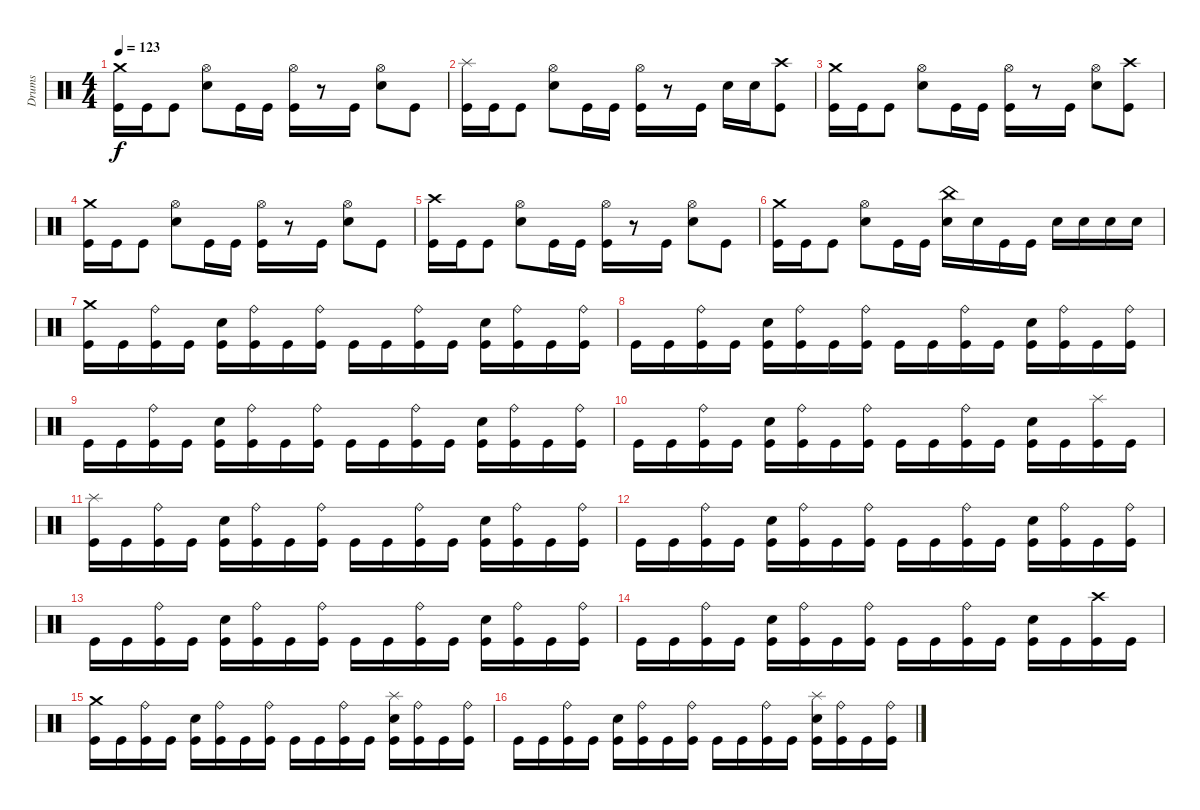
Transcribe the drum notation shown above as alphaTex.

\track ("Drums" "Drums") {instrument percussion}
\staff {score}
\articulation defaults
\ts (4 4)
\tempo 123
\clef neutral
\ks c
("Crash medium (hit)" "Kick (hit)").16{dy f} "Kick (hit)".16 "Kick (hit)".8 ("Hi-Hat (open)" "Electric Snare (hit)").8 "Kick (hit)".16 "Kick (hit)".16 ("Hi-Hat (open)" "Kick (hit)").16 r.8 "Kick (hit)".16 ("Hi-Hat (open)" "Electric Snare (hit)").8 "Kick (hit)".8 |
("Splash (hit)" "Kick (hit)").16 "Kick (hit)".16 "Kick (hit)".8 ("Hi-Hat (open)" "Electric Snare (hit)").8 "Kick (hit)".16 "Kick (hit)".16 ("Hi-Hat (open)" "Kick (hit)").16 r.8 "Kick (hit)".16 "Electric Snare (hit)".16 "Electric Snare (hit)".16 ("Crash high (hit)" "Kick (hit)").8 |
("Crash medium (hit)" "Kick (hit)").16 "Kick (hit)".16 "Kick (hit)".8 ("Hi-Hat (open)" "Electric Snare (hit)").8 "Kick (hit)".16 "Kick (hit)".16 ("Hi-Hat (open)" "Kick (hit)").16 r.8 "Kick (hit)".16 ("Hi-Hat (open)" "Electric Snare (hit)").8 ("Crash high (hit)" "Kick (hit)").8 |
("Crash medium (hit)" "Kick (hit)").16 "Kick (hit)".16 "Kick (hit)".8 ("Hi-Hat (open)" "Electric Snare (hit)").8 "Kick (hit)".16 "Kick (hit)".16 ("Hi-Hat (open)" "Kick (hit)").16 r.8 "Kick (hit)".16 ("Hi-Hat (open)" "Electric Snare (hit)").8 "Kick (hit)".8 |
("Crash high (hit)" "Kick (hit)").16 "Kick (hit)".16 "Kick (hit)".8 ("Hi-Hat (open)" "Electric Snare (hit)").8 "Kick (hit)".16 "Kick (hit)".16 ("Hi-Hat (open)" "Kick (hit)").16 r.8 "Kick (hit)".16 ("Hi-Hat (open)" "Electric Snare (hit)").8 "Kick (hit)".8 |
("Crash medium (hit)" "Kick (hit)").16 "Kick (hit)".16 "Kick (hit)".8 ("Hi-Hat (open)" "Electric Snare (hit)").8 "Kick (hit)".16 "Kick (hit)".16 ("China (hit)" "Electric Snare (hit)").16 "Electric Snare (hit)".16 "Kick (hit)".16 "Kick (hit)".16 "Electric Snare (hit)".16 "Electric Snare (hit)".16 "Electric Snare (hit)".16 "Electric Snare (hit)".16 |
("Crash medium (hit)" "Kick (hit)").16 "Kick (hit)".16 ("Ride (bell)" "Kick (hit)").16 "Kick (hit)".16 ("Electric Snare (hit)" "Kick (hit)").16 ("Ride (bell)" "Kick (hit)").16 "Kick (hit)".16 ("Ride (bell)" "Kick (hit)").16 "Kick (hit)".16 "Kick (hit)".16 ("Ride (bell)" "Kick (hit)").16 "Kick (hit)".16 ("Electric Snare (hit)" "Kick (hit)").16 ("Ride (bell)" "Kick (hit)").16 "Kick (hit)".16 ("Ride (bell)" "Kick (hit)").16 |
"Kick (hit)".16 "Kick (hit)".16 ("Ride (bell)" "Kick (hit)").16 "Kick (hit)".16 ("Electric Snare (hit)" "Kick (hit)").16 ("Ride (bell)" "Kick (hit)").16 "Kick (hit)".16 ("Ride (bell)" "Kick (hit)").16 "Kick (hit)".16 "Kick (hit)".16 ("Ride (bell)" "Kick (hit)").16 "Kick (hit)".16 ("Electric Snare (hit)" "Kick (hit)").16 ("Ride (bell)" "Kick (hit)").16 "Kick (hit)".16 ("Ride (bell)" "Kick (hit)").16 |
"Kick (hit)".16 "Kick (hit)".16 ("Ride (bell)" "Kick (hit)").16 "Kick (hit)".16 ("Electric Snare (hit)" "Kick (hit)").16 ("Ride (bell)" "Kick (hit)").16 "Kick (hit)".16 ("Ride (bell)" "Kick (hit)").16 "Kick (hit)".16 "Kick (hit)".16 ("Ride (bell)" "Kick (hit)").16 "Kick (hit)".16 ("Electric Snare (hit)" "Kick (hit)").16 ("Ride (bell)" "Kick (hit)").16 "Kick (hit)".16 ("Ride (bell)" "Kick (hit)").16 |
"Kick (hit)".16 "Kick (hit)".16 ("Ride (bell)" "Kick (hit)").16 "Kick (hit)".16 ("Electric Snare (hit)" "Kick (hit)").16 ("Ride (bell)" "Kick (hit)").16 "Kick (hit)".16 ("Ride (bell)" "Kick (hit)").16 "Kick (hit)".16 "Kick (hit)".16 ("Ride (bell)" "Kick (hit)").16 "Kick (hit)".16 ("Electric Snare (hit)" "Kick (hit)").16 "Kick (hit)".16 ("Splash (hit)" "Kick (hit)").16 "Kick (hit)".16 |
("Splash (hit)" "Kick (hit)").16 "Kick (hit)".16 ("Ride (bell)" "Kick (hit)").16 "Kick (hit)".16 ("Electric Snare (hit)" "Kick (hit)").16 ("Ride (bell)" "Kick (hit)").16 "Kick (hit)".16 ("Ride (bell)" "Kick (hit)").16 "Kick (hit)".16 "Kick (hit)".16 ("Ride (bell)" "Kick (hit)").16 "Kick (hit)".16 ("Electric Snare (hit)" "Kick (hit)").16 ("Ride (bell)" "Kick (hit)").16 "Kick (hit)".16 ("Ride (bell)" "Kick (hit)").16 |
"Kick (hit)".16 "Kick (hit)".16 ("Ride (bell)" "Kick (hit)").16 "Kick (hit)".16 ("Electric Snare (hit)" "Kick (hit)").16 ("Ride (bell)" "Kick (hit)").16 "Kick (hit)".16 ("Ride (bell)" "Kick (hit)").16 "Kick (hit)".16 "Kick (hit)".16 ("Ride (bell)" "Kick (hit)").16 "Kick (hit)".16 ("Electric Snare (hit)" "Kick (hit)").16 ("Ride (bell)" "Kick (hit)").16 "Kick (hit)".16 ("Ride (bell)" "Kick (hit)").16 |
"Kick (hit)".16 "Kick (hit)".16 ("Ride (bell)" "Kick (hit)").16 "Kick (hit)".16 ("Electric Snare (hit)" "Kick (hit)").16 ("Ride (bell)" "Kick (hit)").16 "Kick (hit)".16 ("Ride (bell)" "Kick (hit)").16 "Kick (hit)".16 "Kick (hit)".16 ("Ride (bell)" "Kick (hit)").16 "Kick (hit)".16 ("Electric Snare (hit)" "Kick (hit)").16 ("Ride (bell)" "Kick (hit)").16 "Kick (hit)".16 ("Ride (bell)" "Kick (hit)").16 |
"Kick (hit)".16 "Kick (hit)".16 ("Ride (bell)" "Kick (hit)").16 "Kick (hit)".16 ("Electric Snare (hit)" "Kick (hit)").16 ("Ride (bell)" "Kick (hit)").16 "Kick (hit)".16 ("Ride (bell)" "Kick (hit)").16 "Kick (hit)".16 "Kick (hit)".16 ("Ride (bell)" "Kick (hit)").16 "Kick (hit)".16 ("Electric Snare (hit)" "Kick (hit)").16 "Kick (hit)".16 ("Crash high (hit)" "Kick (hit)").16 "Kick (hit)".16 |
("Crash medium (hit)" "Kick (hit)").16 "Kick (hit)".16 ("Ride (bell)" "Kick (hit)").16 "Kick (hit)".16 ("Electric Snare (hit)" "Kick (hit)").16 ("Ride (bell)" "Kick (hit)").16 "Kick (hit)".16 ("Ride (bell)" "Kick (hit)").16 "Kick (hit)".16 "Kick (hit)".16 ("Ride (bell)" "Kick (hit)").16 "Kick (hit)".16 ("Splash (hit)" "Electric Snare (hit)" "Kick (hit)").16 ("Ride (bell)" "Kick (hit)").16 "Kick (hit)".16 ("Ride (bell)" "Kick (hit)").16 |
"Kick (hit)".16 "Kick (hit)".16 ("Ride (bell)" "Kick (hit)").16 "Kick (hit)".16 ("Electric Snare (hit)" "Kick (hit)").16 ("Ride (bell)" "Kick (hit)").16 "Kick (hit)".16 ("Ride (bell)" "Kick (hit)").16 "Kick (hit)".16 "Kick (hit)".16 ("Ride (bell)" "Kick (hit)").16 "Kick (hit)".16 ("Splash (hit)" "Electric Snare (hit)" "Kick (hit)").16 ("Ride (bell)" "Kick (hit)").16 "Kick (hit)".16 ("Ride (bell)" "Kick (hit)").16
